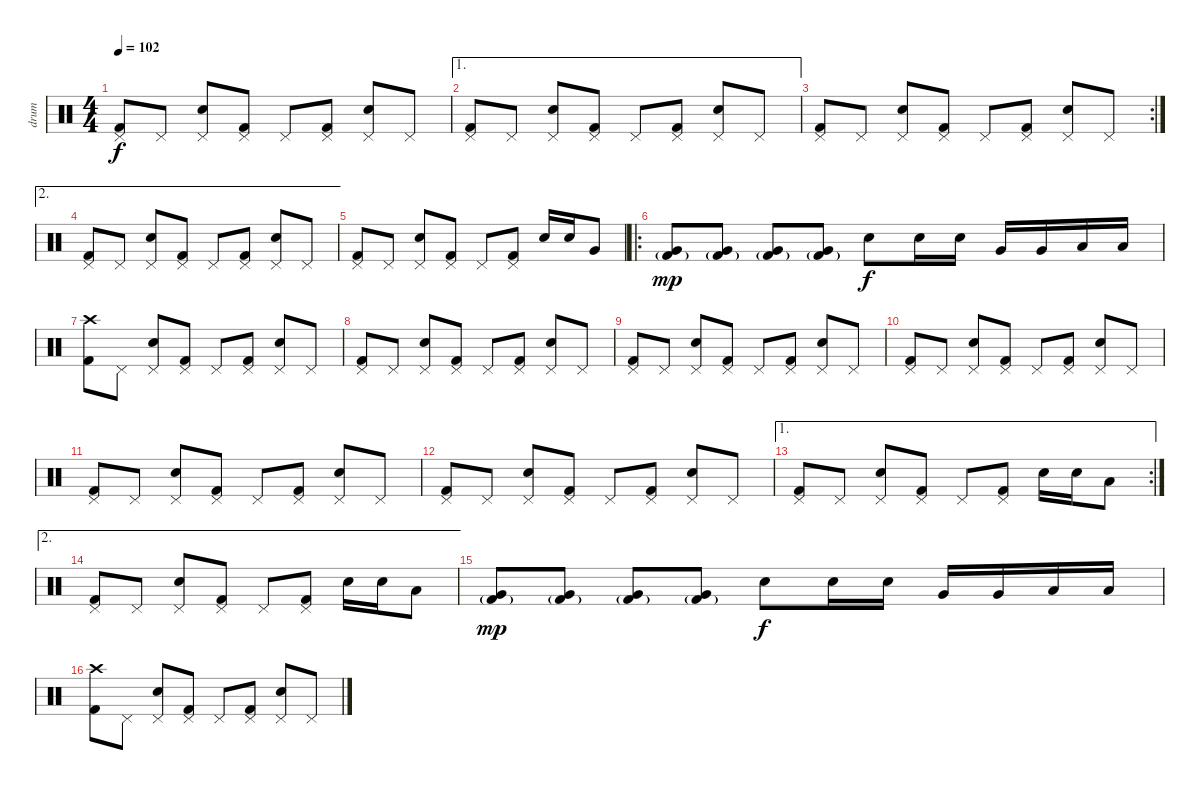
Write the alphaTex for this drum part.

\track ("drum " "drum ") {instrument percussion}
\staff {score}
\articulation defaults
\ts (4 4)
\tempo 102
\clef neutral
\ks c
("Pedal Hi-Hat (hit)" "Kick (hit) 2").8{dy f} "Pedal Hi-Hat (hit)".8 ("Pedal Hi-Hat (hit)" "Snare (hit) 2").8 ("Pedal Hi-Hat (hit)" "Kick (hit) 2").8 "Pedal Hi-Hat (hit)".8 ("Pedal Hi-Hat (hit)" "Kick (hit) 2").8 ("Pedal Hi-Hat (hit)" "Snare (hit) 2").8 "Pedal Hi-Hat (hit)".8 |
\ae 1
("Pedal Hi-Hat (hit)" "Kick (hit) 2").8 "Pedal Hi-Hat (hit)".8 ("Pedal Hi-Hat (hit)" "Snare (hit) 2").8 ("Pedal Hi-Hat (hit)" "Kick (hit) 2").8 "Pedal Hi-Hat (hit)".8 ("Pedal Hi-Hat (hit)" "Kick (hit) 2").8 ("Pedal Hi-Hat (hit)" "Snare (hit) 2").8 "Pedal Hi-Hat (hit)".8 |
\rc 2
("Pedal Hi-Hat (hit)" "Kick (hit) 2").8 "Pedal Hi-Hat (hit)".8 ("Pedal Hi-Hat (hit)" "Snare (hit) 2").8 ("Pedal Hi-Hat (hit)" "Kick (hit) 2").8 "Pedal Hi-Hat (hit)".8 ("Pedal Hi-Hat (hit)" "Kick (hit) 2").8 ("Pedal Hi-Hat (hit)" "Snare (hit) 2").8 "Pedal Hi-Hat (hit)".8 |
\ae 2
("Pedal Hi-Hat (hit)" "Kick (hit) 2").8 "Pedal Hi-Hat (hit)".8 ("Pedal Hi-Hat (hit)" "Snare (hit) 2").8 ("Pedal Hi-Hat (hit)" "Kick (hit) 2").8 "Pedal Hi-Hat (hit)".8 ("Pedal Hi-Hat (hit)" "Kick (hit) 2").8 ("Pedal Hi-Hat (hit)" "Snare (hit) 2").8 "Pedal Hi-Hat (hit)".8 |
("Pedal Hi-Hat (hit)" "Kick (hit) 2").8 "Pedal Hi-Hat (hit)".8 ("Pedal Hi-Hat (hit)" "Snare (hit) 2").8 ("Pedal Hi-Hat (hit)" "Kick (hit) 2").8 "Pedal Hi-Hat (hit)".8 ("Pedal Hi-Hat (hit)" "Kick (hit) 2").8 "Snare (hit) 2".16 "Snare (hit) 2".16 "Very Low Tom (hit)".8 |
\ro
("Very Low Tom (hit)" "Kick (hit) 2"{g}).8{dy mp volume 8} ("Very Low Tom (hit)" "Kick (hit) 2"{g}).8{volume 10} ("Very Low Tom (hit)" "Kick (hit) 2"{g}).8{volume 12} ("Very Low Tom (hit)" "Kick (hit) 2"{g}).8{volume 14} "Snare (hit) 2".8{dy f} "Snare (hit) 2".16 "Snare (hit) 2".16 "Very Low Tom (hit)".16 "Very Low Tom (hit)".16 "Low Floor Tom (hit)".16 "Low Floor Tom (hit)".16 |
("Crash high (hit)" "Kick (hit) 2").8 "Pedal Hi-Hat (hit)".8 ("Pedal Hi-Hat (hit)" "Snare (hit) 2").8 ("Pedal Hi-Hat (hit)" "Kick (hit) 2").8 "Pedal Hi-Hat (hit)".8 ("Pedal Hi-Hat (hit)" "Kick (hit) 2").8 ("Pedal Hi-Hat (hit)" "Snare (hit) 2").8 "Pedal Hi-Hat (hit)".8 |
("Pedal Hi-Hat (hit)" "Kick (hit) 2").8 "Pedal Hi-Hat (hit)".8 ("Pedal Hi-Hat (hit)" "Snare (hit) 2").8 ("Pedal Hi-Hat (hit)" "Kick (hit) 2").8 "Pedal Hi-Hat (hit)".8 ("Pedal Hi-Hat (hit)" "Kick (hit) 2").8 ("Pedal Hi-Hat (hit)" "Snare (hit) 2").8 "Pedal Hi-Hat (hit)".8 |
("Pedal Hi-Hat (hit)" "Kick (hit) 2").8 "Pedal Hi-Hat (hit)".8 ("Pedal Hi-Hat (hit)" "Snare (hit) 2").8 ("Pedal Hi-Hat (hit)" "Kick (hit) 2").8 "Pedal Hi-Hat (hit)".8 ("Pedal Hi-Hat (hit)" "Kick (hit) 2").8 ("Pedal Hi-Hat (hit)" "Snare (hit) 2").8 "Pedal Hi-Hat (hit)".8 |
("Pedal Hi-Hat (hit)" "Kick (hit) 2").8 "Pedal Hi-Hat (hit)".8 ("Pedal Hi-Hat (hit)" "Snare (hit) 2").8 ("Pedal Hi-Hat (hit)" "Kick (hit) 2").8 "Pedal Hi-Hat (hit)".8 ("Pedal Hi-Hat (hit)" "Kick (hit) 2").8 ("Pedal Hi-Hat (hit)" "Snare (hit) 2").8 "Pedal Hi-Hat (hit)".8 |
("Pedal Hi-Hat (hit)" "Kick (hit) 2").8 "Pedal Hi-Hat (hit)".8 ("Pedal Hi-Hat (hit)" "Snare (hit) 2").8 ("Pedal Hi-Hat (hit)" "Kick (hit) 2").8 "Pedal Hi-Hat (hit)".8 ("Pedal Hi-Hat (hit)" "Kick (hit) 2").8 ("Pedal Hi-Hat (hit)" "Snare (hit) 2").8 "Pedal Hi-Hat (hit)".8 |
("Pedal Hi-Hat (hit)" "Kick (hit) 2").8 "Pedal Hi-Hat (hit)".8 ("Pedal Hi-Hat (hit)" "Snare (hit) 2").8 ("Pedal Hi-Hat (hit)" "Kick (hit) 2").8 "Pedal Hi-Hat (hit)".8 ("Pedal Hi-Hat (hit)" "Kick (hit) 2").8 ("Pedal Hi-Hat (hit)" "Snare (hit) 2").8 "Pedal Hi-Hat (hit)".8 |
\ae 1
\rc 2
("Pedal Hi-Hat (hit)" "Kick (hit) 2").8 "Pedal Hi-Hat (hit)".8 ("Pedal Hi-Hat (hit)" "Snare (hit) 2").8 ("Pedal Hi-Hat (hit)" "Kick (hit) 2").8 "Pedal Hi-Hat (hit)".8 ("Pedal Hi-Hat (hit)" "Kick (hit) 2").8 "Snare (hit) 2".16 "Snare (hit) 2".16 "Low Tom (hit)".8 |
\ae 2
("Pedal Hi-Hat (hit)" "Kick (hit) 2").8 "Pedal Hi-Hat (hit)".8 ("Pedal Hi-Hat (hit)" "Snare (hit) 2").8 ("Pedal Hi-Hat (hit)" "Kick (hit) 2").8 "Pedal Hi-Hat (hit)".8 ("Pedal Hi-Hat (hit)" "Kick (hit) 2").8 "Snare (hit) 2".16 "Snare (hit) 2".16 "Low Tom (hit)".8 |
("Very Low Tom (hit)" "Kick (hit) 2"{g}).8{dy mp volume 8} ("Very Low Tom (hit)" "Kick (hit) 2"{g}).8{volume 10} ("Very Low Tom (hit)" "Kick (hit) 2"{g}).8{volume 12} ("Very Low Tom (hit)" "Kick (hit) 2"{g}).8{volume 14} "Snare (hit) 2".8{dy f} "Snare (hit) 2".16 "Snare (hit) 2".16 "Very Low Tom (hit)".16 "Very Low Tom (hit)".16 "Low Floor Tom (hit)".16 "Low Floor Tom (hit)".16 |
("Crash high (hit)" "Kick (hit) 2").8 "Pedal Hi-Hat (hit)".8 ("Pedal Hi-Hat (hit)" "Snare (hit) 2").8 ("Pedal Hi-Hat (hit)" "Kick (hit) 2").8 "Pedal Hi-Hat (hit)".8 ("Pedal Hi-Hat (hit)" "Kick (hit) 2").8 ("Pedal Hi-Hat (hit)" "Snare (hit) 2").8 "Pedal Hi-Hat (hit)".8
